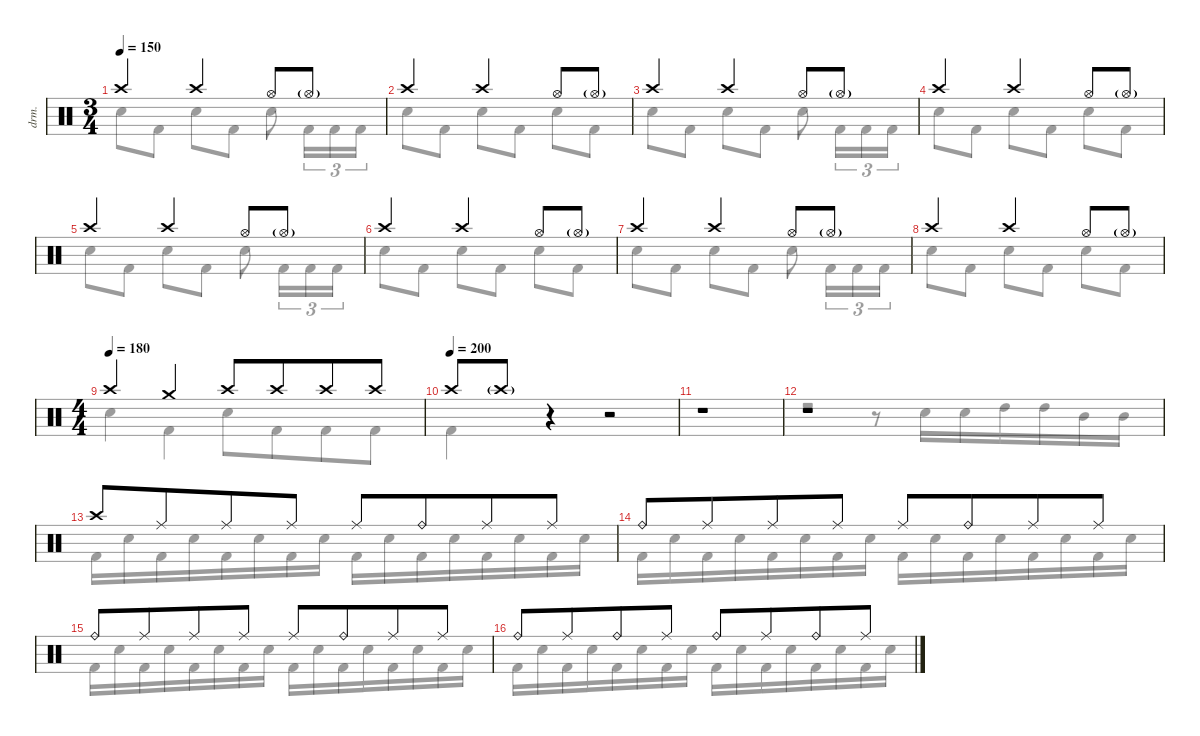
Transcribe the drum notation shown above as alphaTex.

\defaultSystemsLayout 4
\hideDynamics
\bracketExtendMode nobrackets
\otherSystemsTrackNameOrientation horizontal
\track ("B. Richardson Drums" "drm.") {instrument percussion}
\staff {score}
\articulation defaults
\voice
\ts (3 4)
\tempo 150
\clef neutral
\ks c "Crash high (hit)".4{dy mf beam Up} "Crash high (hit)".4{beam Up} "Hi-Hat (open)".8{beam Up} "Hi-Hat (open)"{g}.8{beam Up}
|
"Crash high (hit)".4{beam Up} "Crash high (hit)".4{beam Up} "Hi-Hat (open)".8{beam Up} "Hi-Hat (open)"{g}.8{beam Up} |
"Crash high (hit)".4{beam Up} "Crash high (hit)".4{beam Up} "Hi-Hat (open)".8{beam Up} "Hi-Hat (open)"{g}.8{beam Up} |
"Crash high (hit)".4{beam Up} "Crash high (hit)".4{beam Up} "Hi-Hat (open)".8{beam Up} "Hi-Hat (open)"{g}.8{beam Up} |
"Crash high (hit)".4{beam Up} "Crash high (hit)".4{beam Up} "Hi-Hat (open)".8{beam Up} "Hi-Hat (open)"{g}.8{beam Up} |
"Crash high (hit)".4{beam Up} "Crash high (hit)".4{beam Up} "Hi-Hat (open)".8{beam Up} "Hi-Hat (open)"{g}.8{beam Up} |
"Crash high (hit)".4{beam Up} "Crash high (hit)".4{beam Up} "Hi-Hat (open)".8{beam Up} "Hi-Hat (open)"{g}.8{beam Up} |
"Crash high (hit)".4{beam Up} "Crash high (hit)".4{beam Up} "Hi-Hat (open)".8{beam Up} "Hi-Hat (open)"{g}.8{beam Up} |
\ts (4 4)
\beaming (8 4 4)
\tempo (180)
"Crash high (hit)".4{beam Up} "Crash medium (hit)".4{beam Up} "Crash high (hit)".8{beam Up} "Crash high (hit)".8{beam Up} "Crash high (hit)".8{beam Up} "Crash high (hit)".8{beam Up} |
\tempo (200)
"Crash high (hit)".8{beam Up} "Crash high (hit)"{g}.8{dy pp beam Up} r.4{beam Up} r.2{beam Up} |
r.1{beam Up} |
r.1{beam Up} |
"Crash high (hit)".8{dy mf beam Up} "Ride (middle)".8{beam Up} "Ride (middle)".8{beam Up} "Ride (middle)".8{beam Up} "Ride (middle)".8{beam Up} "Ride (bell)".8{dy f beam Up} "Ride (middle)".8{dy mf beam Up} "Ride (middle)".8{beam Up} |
"Ride (bell)".8{dy f beam Up} "Ride (middle)".8{dy mf beam Up} "Ride (middle)".8{beam Up} "Ride (middle)".8{beam Up} "Ride (middle)".8{beam Up} "Ride (bell)".8{dy f beam Up} "Ride (middle)".8{dy mf beam Up} "Ride (middle)".8{beam Up} |
"Ride (bell)".8{dy f beam Up} "Ride (middle)".8{dy mf beam Up} "Ride (middle)".8{beam Up} "Ride (middle)".8{beam Up} "Ride (middle)".8{beam Up} "Ride (bell)".8{dy f beam Up} "Ride (middle)".8{dy mf beam Up} "Ride (middle)".8{beam Up} |
"Ride (bell)".8{dy f beam Up} "Ride (middle)".8{dy mf beam Up} "Ride (bell)".8{dy f beam Up} "Ride (middle)".8{dy mf beam Up} "Ride (bell)".8{dy f beam Up} "Ride (middle)".8{dy mf beam Up} "Ride (bell)".8{dy f beam Up} "Ride (middle)".8{dy mf beam Up}
\voice
\clef neutral
\ottava regular
\simile none
\ks c "Snare (hit) 2".8{dy fff beam Down} "Kick (hit) 2".8{beam Down} "Snare (hit) 2".8{beam Down} "Kick (hit) 2".8{beam Down} "Snare (hit) 2".8{beam Down} "Kick (hit) 2".16{tu (3 2) beam Down} "Kick (hit) 2".16{tu (3 2) beam Down} "Kick (hit) 2".16{tu (3 2) beam Down}
|
"Snare (hit) 2".8{beam Down} "Kick (hit) 2".8{beam Down} "Snare (hit) 2".8{beam Down} "Kick (hit) 2".8{beam Down} "Snare (hit) 2".8{beam Down} "Kick (hit) 2".8{beam Down} |
"Snare (hit) 2".8{beam Down} "Kick (hit) 2".8{beam Down} "Snare (hit) 2".8{beam Down} "Kick (hit) 2".8{beam Down} "Snare (hit) 2".8{beam Down} "Kick (hit) 2".16{tu (3 2) beam Down} "Kick (hit) 2".16{tu (3 2) beam Down} "Kick (hit) 2".16{tu (3 2) beam Down} |
"Snare (hit) 2".8{beam Down} "Kick (hit) 2".8{beam Down} "Snare (hit) 2".8{beam Down} "Kick (hit) 2".8{beam Down} "Snare (hit) 2".8{beam Down} "Kick (hit) 2".8{beam Down} |
"Snare (hit) 2".8{beam Down} "Kick (hit) 2".8{beam Down} "Snare (hit) 2".8{beam Down} "Kick (hit) 2".8{beam Down} "Snare (hit) 2".8{beam Down} "Kick (hit) 2".16{tu (3 2) beam Down} "Kick (hit) 2".16{tu (3 2) beam Down} "Kick (hit) 2".16{tu (3 2) beam Down} |
"Snare (hit) 2".8{beam Down} "Kick (hit) 2".8{beam Down} "Snare (hit) 2".8{beam Down} "Kick (hit) 2".8{beam Down} "Snare (hit) 2".8{beam Down} "Kick (hit) 2".8{beam Down} |
"Snare (hit) 2".8{beam Down} "Kick (hit) 2".8{beam Down} "Snare (hit) 2".8{beam Down} "Kick (hit) 2".8{beam Down} "Snare (hit) 2".8{beam Down} "Kick (hit) 2".16{tu (3 2) beam Down} "Kick (hit) 2".16{tu (3 2) beam Down} "Kick (hit) 2".16{tu (3 2) beam Down} |
"Snare (hit) 2".8{beam Down} "Kick (hit) 2".8{beam Down} "Snare (hit) 2".8{beam Down} "Kick (hit) 2".8{beam Down} "Snare (hit) 2".8{beam Down} "Kick (hit) 2".8{beam Down} |
"Snare (hit) 2".4{beam Down} "Kick (hit) 2".4{beam Down} "Snare (hit) 2".8{beam Down} "Kick (hit) 2".8{beam Down} "Kick (hit) 2".8{beam Down} "Kick (hit) 2".8{beam Down} |
"Kick (hit) 2".4{beam Down} r.4{beam Down} r.2{beam Down} |
r.1{beam Down} |
r.2{beam Down} r.8{beam Down} "Snare (hit) 2".16{beam Down} "Snare (hit) 2".16{beam Down} "High Tom (hit)".16{beam Down} "High Tom (hit)".16{beam Down} "Mid Tom (hit)".16{beam Down} "Mid Tom (hit)".16{beam Down} |
"Kick (hit) 2".16{beam Down} "Snare (hit) 2".16{dy f beam Down} "Kick (hit) 2".16{dy fff beam Down} "Snare (hit) 2".16{dy f beam Down} "Kick (hit) 2".16{dy fff beam Down} "Snare (hit) 2".16{dy f beam Down} "Kick (hit) 2".16{dy fff beam Down} "Snare (hit) 2".16{dy f beam Down} "Kick (hit) 2".16{dy fff beam Down} "Snare (hit) 2".16{dy f beam Down} "Kick (hit) 2".16{dy fff beam Down} "Snare (hit) 2".16{dy f beam Down} "Kick (hit) 2".16{dy fff beam Down} "Snare (hit) 2".16{dy f beam Down} "Kick (hit) 2".16{dy fff beam Down} "Snare (hit) 2".16{dy f beam Down} |
"Kick (hit) 2".16{dy fff beam Down} "Snare (hit) 2".16{dy f beam Down} "Kick (hit) 2".16{dy fff beam Down} "Snare (hit) 2".16{dy f beam Down} "Kick (hit) 2".16{dy fff beam Down} "Snare (hit) 2".16{dy f beam Down} "Kick (hit) 2".16{dy fff beam Down} "Snare (hit) 2".16{dy f beam Down} "Kick (hit) 2".16{dy fff beam Down} "Snare (hit) 2".16{dy f beam Down} "Kick (hit) 2".16{dy fff beam Down} "Snare (hit) 2".16{dy f beam Down} "Kick (hit) 2".16{dy fff beam Down} "Snare (hit) 2".16{dy f beam Down} "Kick (hit) 2".16{dy fff beam Down} "Snare (hit) 2".16{dy f beam Down} |
"Kick (hit) 2".16{dy fff beam Down} "Snare (hit) 2".16{dy f beam Down} "Kick (hit) 2".16{dy fff beam Down} "Snare (hit) 2".16{dy f beam Down} "Kick (hit) 2".16{dy fff beam Down} "Snare (hit) 2".16{dy f beam Down} "Kick (hit) 2".16{dy fff beam Down} "Snare (hit) 2".16{dy f beam Down} "Kick (hit) 2".16{dy fff beam Down} "Snare (hit) 2".16{dy f beam Down} "Kick (hit) 2".16{dy fff beam Down} "Snare (hit) 2".16{dy f beam Down} "Kick (hit) 2".16{dy fff beam Down} "Snare (hit) 2".16{dy f beam Down} "Kick (hit) 2".16{dy fff beam Down} "Snare (hit) 2".16{dy f beam Down} |
"Kick (hit) 2".16{dy fff beam Down} "Snare (hit) 2".16{dy f beam Down} "Kick (hit) 2".16{dy fff beam Down} "Snare (hit) 2".16{dy f beam Down} "Kick (hit) 2".16{dy fff beam Down} "Snare (hit) 2".16{dy f beam Down} "Kick (hit) 2".16{dy fff beam Down} "Snare (hit) 2".16{dy f beam Down} "Kick (hit) 2".16{dy fff beam Down} "Snare (hit) 2".16{dy f beam Down} "Kick (hit) 2".16{dy fff beam Down} "Snare (hit) 2".16{dy f beam Down} "Kick (hit) 2".16{dy fff beam Down} "Snare (hit) 2".16{dy f beam Down} "Kick (hit) 2".16{dy fff beam Down} "Snare (hit) 2".16{dy f beam Down}
